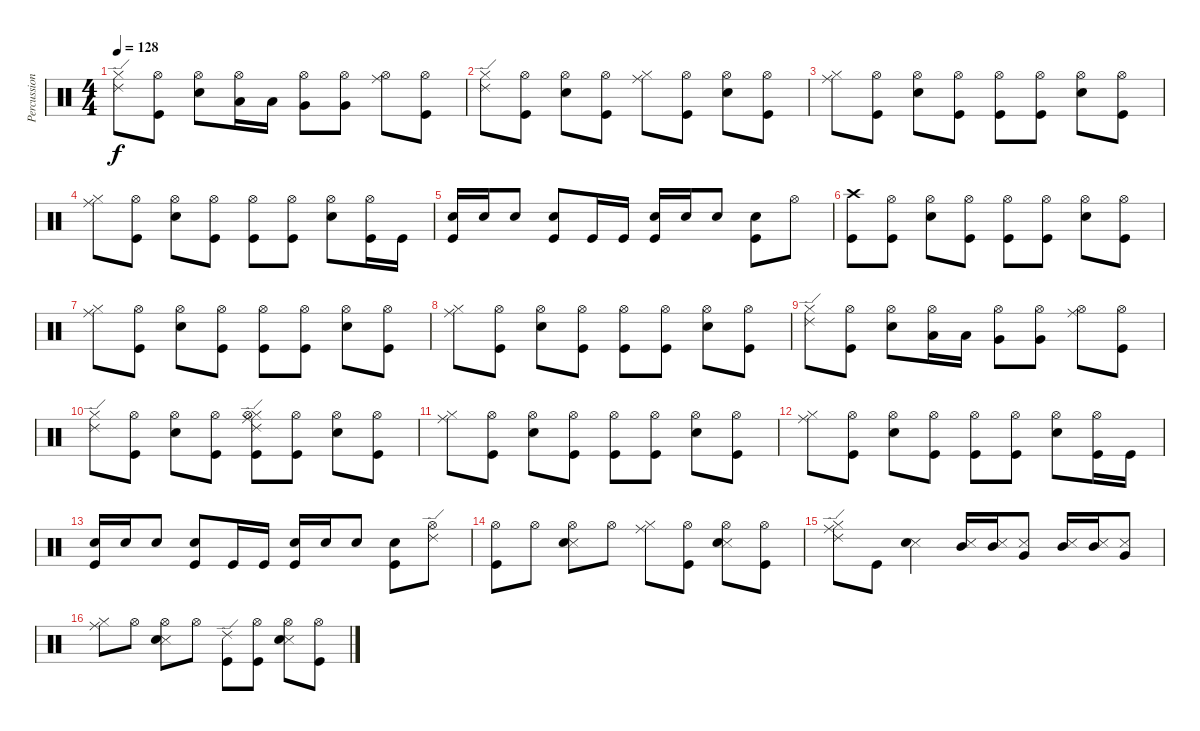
\track ("Percussion" "Percussion") {instrument percussion}
\staff {score}
\articulation defaults
\ts (4 4)
\tempo 128
\clef neutral
\ks c
("Ride (edge) 2" "Hi-Hat (closed)").8{dy f} ("Kick (hit)" "Hi-Hat (open)").8 ("Electric Snare (hit)" "Hi-Hat (open)").8 ("Hi-Hat (open)" "Low Tom (hit)").16 "Low Tom (hit)".16 ("Very Low Tom (hit)" "Hi-Hat (open)").8 ("Very Low Tom (hit)" "Hi-Hat (open)").8 ("Ride (middle)" "Hi-Hat (open)").8 ("Kick (hit)" "Hi-Hat (open)").8 |
("Ride (edge) 2" "Hi-Hat (closed)").8 ("Kick (hit)" "Hi-Hat (open)").8 ("Electric Snare (hit)" "Hi-Hat (open)").8 ("Kick (hit)" "Hi-Hat (open)").8 ("Hi-Hat (closed)" "Ride (middle)").8 ("Kick (hit)" "Hi-Hat (open)").8 ("Electric Snare (hit)" "Hi-Hat (open)").8 ("Kick (hit)" "Hi-Hat (open)").8 |
("Hi-Hat (closed)" "Ride (middle)").8 ("Kick (hit)" "Hi-Hat (open)").8 ("Electric Snare (hit)" "Hi-Hat (open)").8 ("Kick (hit)" "Hi-Hat (open)").8 ("Kick (hit)" "Hi-Hat (open)").8 ("Kick (hit)" "Hi-Hat (open)").8 ("Electric Snare (hit)" "Hi-Hat (open)").8 ("Kick (hit)" "Hi-Hat (open)").8 |
("Hi-Hat (closed)" "Ride (middle)").8 ("Kick (hit)" "Hi-Hat (open)").8 ("Electric Snare (hit)" "Hi-Hat (open)").8 ("Kick (hit)" "Hi-Hat (open)").8 ("Kick (hit)" "Hi-Hat (open)").8 ("Hi-Hat (open)" "Kick (hit)").8 ("Electric Snare (hit)" "Hi-Hat (open)").8 ("Kick (hit)" "Hi-Hat (open)").16 "Kick (hit)".16 |
("Kick (hit)" "Electric Snare (hit)").16 "Electric Snare (hit)".16 "Electric Snare (hit)".8 ("Kick (hit)" "Electric Snare (hit)").8 "Kick (hit)".16 "Kick (hit)".16 ("Kick (hit)" "Electric Snare (hit)").16 "Electric Snare (hit)".16 "Electric Snare (hit)".8 ("Kick (hit)" "Electric Snare (hit)").8 "Hi-Hat (open)".8 |
("Crash high (hit)" "Kick (hit)").8 ("Kick (hit)" "Hi-Hat (open)").8 ("Electric Snare (hit)" "Hi-Hat (open)").8 ("Kick (hit)" "Hi-Hat (open)").8 ("Kick (hit)" "Hi-Hat (open)").8 ("Kick (hit)" "Hi-Hat (open)").8 ("Electric Snare (hit)" "Hi-Hat (open)").8 ("Kick (hit)" "Hi-Hat (open)").8 |
("Hi-Hat (closed)" "Ride (middle)").8 ("Kick (hit)" "Hi-Hat (open)").8 ("Electric Snare (hit)" "Hi-Hat (open)").8 ("Kick (hit)" "Hi-Hat (open)").8 ("Kick (hit)" "Hi-Hat (open)").8 ("Kick (hit)" "Hi-Hat (open)").8 ("Electric Snare (hit)" "Hi-Hat (open)").8 ("Kick (hit)" "Hi-Hat (open)").8 |
("Hi-Hat (closed)" "Ride (middle)").8 ("Kick (hit)" "Hi-Hat (open)").8 ("Electric Snare (hit)" "Hi-Hat (open)").8 ("Kick (hit)" "Hi-Hat (open)").8 ("Kick (hit)" "Hi-Hat (open)").8 ("Kick (hit)" "Hi-Hat (open)").8 ("Electric Snare (hit)" "Hi-Hat (open)").8 ("Kick (hit)" "Hi-Hat (open)").8 |
("Ride (edge) 2" "Hi-Hat (closed)").8 ("Kick (hit)" "Hi-Hat (open)").8 ("Electric Snare (hit)" "Hi-Hat (open)").8 ("Hi-Hat (open)" "Low Tom (hit)").16 "Low Tom (hit)".16 ("Very Low Tom (hit)" "Hi-Hat (open)").8 ("Very Low Tom (hit)" "Hi-Hat (open)").8 ("Ride (middle)" "Hi-Hat (open)").8 ("Kick (hit)" "Hi-Hat (open)").8 |
("Ride (edge) 2" "Hi-Hat (closed)").8 ("Kick (hit)" "Hi-Hat (open)").8 ("Electric Snare (hit)" "Hi-Hat (open)").8 ("Kick (hit)" "Hi-Hat (open)").8 ("Hi-Hat (closed)" "Ride (middle)" "Ride (edge) 2" "Kick (hit)" "Hi-Hat (open)").8 ("Kick (hit)" "Hi-Hat (open)").8 ("Electric Snare (hit)" "Hi-Hat (open)").8 ("Kick (hit)" "Hi-Hat (open)").8 |
("Hi-Hat (closed)" "Ride (middle)").8 ("Kick (hit)" "Hi-Hat (open)").8 ("Electric Snare (hit)" "Hi-Hat (open)").8 ("Kick (hit)" "Hi-Hat (open)").8 ("Kick (hit)" "Hi-Hat (open)").8 ("Kick (hit)" "Hi-Hat (open)").8 ("Electric Snare (hit)" "Hi-Hat (open)").8 ("Kick (hit)" "Hi-Hat (open)").8 |
("Hi-Hat (closed)" "Ride (middle)").8 ("Kick (hit)" "Hi-Hat (open)").8 ("Electric Snare (hit)" "Hi-Hat (open)").8 ("Kick (hit)" "Hi-Hat (open)").8 ("Kick (hit)" "Hi-Hat (open)").8 ("Hi-Hat (open)" "Kick (hit)").8 ("Electric Snare (hit)" "Hi-Hat (open)").8 ("Kick (hit)" "Hi-Hat (open)").16 "Kick (hit)".16 |
("Kick (hit)" "Electric Snare (hit)").16 "Electric Snare (hit)".16 "Electric Snare (hit)".8 ("Kick (hit)" "Electric Snare (hit)").8 "Kick (hit)".16 "Kick (hit)".16 ("Kick (hit)" "Electric Snare (hit)").16 "Electric Snare (hit)".16 "Electric Snare (hit)".8 ("Kick (hit)" "Electric Snare (hit)").8 ("Ride (edge) 2" "Hi-Hat (open)").8 |
("Kick (hit)" "Hi-Hat (open)").8 "Hi-Hat (open)".8 ("Snare (side stick) 3" "Electric Snare (hit)" "Hi-Hat (open)").8 "Hi-Hat (open)".8 ("Hi-Hat (closed)" "Ride (middle)").8 ("Kick (hit)" "Hi-Hat (open)").8 ("Snare (side stick) 3" "Electric Snare (hit)" "Hi-Hat (open)").8 ("Kick (hit)" "Hi-Hat (open)").8 |
("Ride (edge) 2" "Ride (middle)" "Hi-Hat (closed)").8 "Kick (hit)".8 ("Snare (side stick) 3" "Electric Snare (hit)").4 ("Snare (side stick) 3" "Mid Tom (hit)").16 ("Snare (side stick) 3" "Mid Tom (hit)").16 ("Snare (side stick) 3" "Very Low Tom (hit)").8 ("Snare (side stick) 3" "Mid Tom (hit)").16 ("Snare (side stick) 3" "Mid Tom (hit)").16 ("Snare (side stick) 3" "Very Low Tom (hit)").8 |
("Hi-Hat (closed)" "Ride (middle)").8 "Hi-Hat (open)".8 ("Snare (side stick) 3" "Electric Snare (hit)" "Hi-Hat (open)").8 "Hi-Hat (open)".8 ("Ride (edge) 2" "Kick (hit)").8 ("Kick (hit)" "Hi-Hat (open)").8 ("Snare (side stick) 3" "Electric Snare (hit)" "Hi-Hat (open)").8 ("Kick (hit)" "Hi-Hat (open)").8
